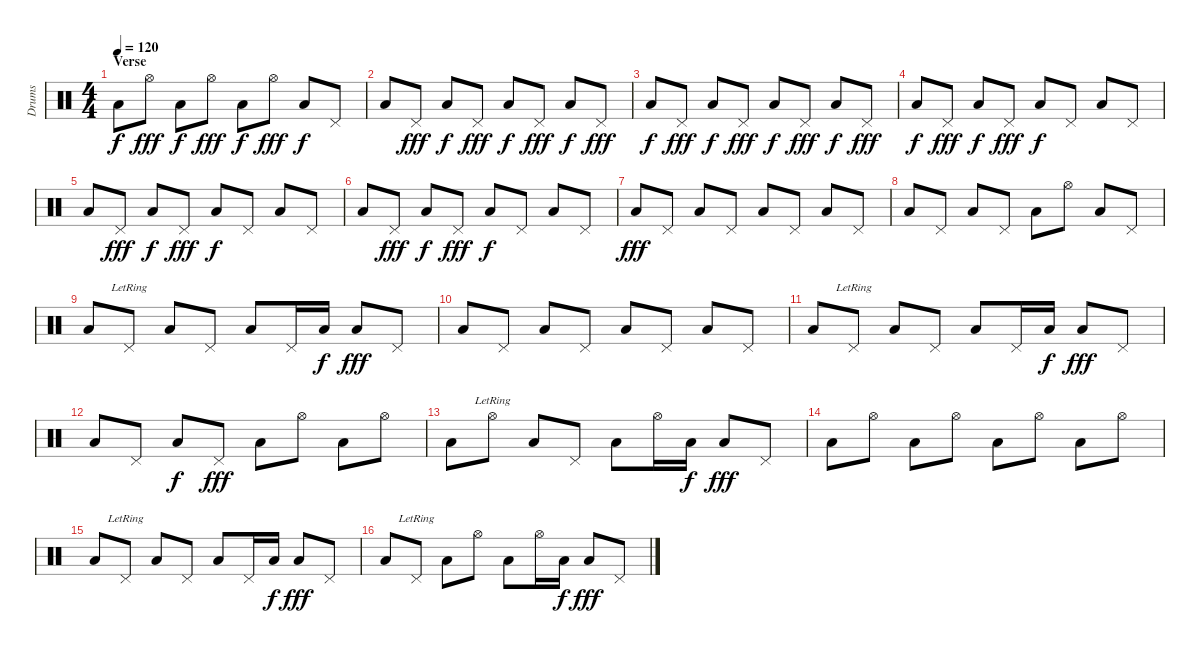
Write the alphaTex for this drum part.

\track ("Drums" "Drums") {instrument percussion}
\staff {score}
\articulation defaults
\ts (4 4)
\section ("" "Verse")
\tempo 120
\clef neutral
\ks c "Low Floor Tom (hit)".8{dy f} "Hi-Hat (open)".8{dy fff} "Low Floor Tom (hit)".8{dy f} "Hi-Hat (open)".8{dy fff} "Low Floor Tom (hit)".8{dy f} "Hi-Hat (open)".8{dy fff} "Low Floor Tom (hit)".8{dy f} "Pedal Hi-Hat (hit)".8
|
"Low Floor Tom (hit)".8 "Pedal Hi-Hat (hit)".8{dy fff} "Low Floor Tom (hit)".8{dy f} "Pedal Hi-Hat (hit)".8{dy fff} "Low Floor Tom (hit)".8{dy f} "Pedal Hi-Hat (hit)".8{dy fff} "Low Floor Tom (hit)".8{dy f} "Pedal Hi-Hat (hit)".8{dy fff} |
"Low Floor Tom (hit)".8{dy f} "Pedal Hi-Hat (hit)".8{dy fff} "Low Floor Tom (hit)".8{dy f} "Pedal Hi-Hat (hit)".8{dy fff} "Low Floor Tom (hit)".8{dy f} "Pedal Hi-Hat (hit)".8{dy fff} "Low Floor Tom (hit)".8{dy f} "Pedal Hi-Hat (hit)".8{dy fff} |
"Low Floor Tom (hit)".8{dy f} "Pedal Hi-Hat (hit)".8{dy fff} "Low Floor Tom (hit)".8{dy f} "Pedal Hi-Hat (hit)".8{dy fff} "Low Floor Tom (hit)".8{dy f} "Pedal Hi-Hat (hit)".8 "Low Floor Tom (hit)".8 "Pedal Hi-Hat (hit)".8 |
"Low Floor Tom (hit)".8 "Pedal Hi-Hat (hit)".8{dy fff} "Low Floor Tom (hit)".8{dy f} "Pedal Hi-Hat (hit)".8{dy fff} "Low Floor Tom (hit)".8{dy f} "Pedal Hi-Hat (hit)".8 "Low Floor Tom (hit)".8 "Pedal Hi-Hat (hit)".8 |
"Low Floor Tom (hit)".8 "Pedal Hi-Hat (hit)".8{dy fff} "Low Floor Tom (hit)".8{dy f} "Pedal Hi-Hat (hit)".8{dy fff} "Low Floor Tom (hit)".8{dy f} "Pedal Hi-Hat (hit)".8 "Low Floor Tom (hit)".8 "Pedal Hi-Hat (hit)".8 |
"Low Floor Tom (hit)".8{dy fff} "Pedal Hi-Hat (hit)".8 "Low Floor Tom (hit)".8 "Pedal Hi-Hat (hit)".8 "Low Floor Tom (hit)".8 "Pedal Hi-Hat (hit)".8 "Low Floor Tom (hit)".8 "Pedal Hi-Hat (hit)".8 |
"Low Floor Tom (hit)".8 "Pedal Hi-Hat (hit)".8 "Low Floor Tom (hit)".8 "Pedal Hi-Hat (hit)".8 "Low Floor Tom (hit)".8 "Hi-Hat (open)".8 "Low Floor Tom (hit)".8 "Pedal Hi-Hat (hit)".8 |
"Low Floor Tom (hit)".8 "Pedal Hi-Hat (hit)"{lr}.8 "Low Floor Tom (hit)".8 "Pedal Hi-Hat (hit)".8 "Low Floor Tom (hit)".8 "Pedal Hi-Hat (hit)".16 "Low Floor Tom (hit)".16{dy f} "Low Floor Tom (hit)".8{dy fff} "Pedal Hi-Hat (hit)".8 |
"Low Floor Tom (hit)".8 "Pedal Hi-Hat (hit)".8 "Low Floor Tom (hit)".8 "Pedal Hi-Hat (hit)".8 "Low Floor Tom (hit)".8 "Pedal Hi-Hat (hit)".8 "Low Floor Tom (hit)".8 "Pedal Hi-Hat (hit)".8 |
"Low Floor Tom (hit)".8 "Pedal Hi-Hat (hit)"{lr}.8 "Low Floor Tom (hit)".8 "Pedal Hi-Hat (hit)".8 "Low Floor Tom (hit)".8 "Pedal Hi-Hat (hit)".16 "Low Floor Tom (hit)".16{dy f} "Low Floor Tom (hit)".8{dy fff} "Pedal Hi-Hat (hit)".8 |
"Low Floor Tom (hit)".8 "Pedal Hi-Hat (hit)".8 "Low Floor Tom (hit)".8{dy f} "Pedal Hi-Hat (hit)".8{dy fff} "Low Floor Tom (hit)".8 "Hi-Hat (open)".8 "Low Floor Tom (hit)".8 "Hi-Hat (open)".8 |
"Low Floor Tom (hit)".8 "Hi-Hat (open)"{lr}.8 "Low Floor Tom (hit)".8 "Pedal Hi-Hat (hit)".8 "Low Floor Tom (hit)".8 "Hi-Hat (open)".16 "Low Floor Tom (hit)".16{dy f} "Low Floor Tom (hit)".8{dy fff} "Pedal Hi-Hat (hit)".8 |
"Low Floor Tom (hit)".8 "Hi-Hat (open)".8 "Low Floor Tom (hit)".8 "Hi-Hat (open)".8 "Low Floor Tom (hit)".8 "Hi-Hat (open)".8 "Low Floor Tom (hit)".8 "Hi-Hat (open)".8 |
"Low Floor Tom (hit)".8 "Pedal Hi-Hat (hit)"{lr}.8 "Low Floor Tom (hit)".8 "Pedal Hi-Hat (hit)".8 "Low Floor Tom (hit)".8 "Pedal Hi-Hat (hit)".16 "Low Floor Tom (hit)".16{dy f} "Low Floor Tom (hit)".8{dy fff} "Pedal Hi-Hat (hit)".8 |
"Low Floor Tom (hit)".8 "Pedal Hi-Hat (hit)"{lr}.8 "Low Floor Tom (hit)".8 "Hi-Hat (open)".8 "Low Floor Tom (hit)".8 "Hi-Hat (open)".16 "Low Floor Tom (hit)".16{dy f} "Low Floor Tom (hit)".8{dy fff} "Pedal Hi-Hat (hit)".8
